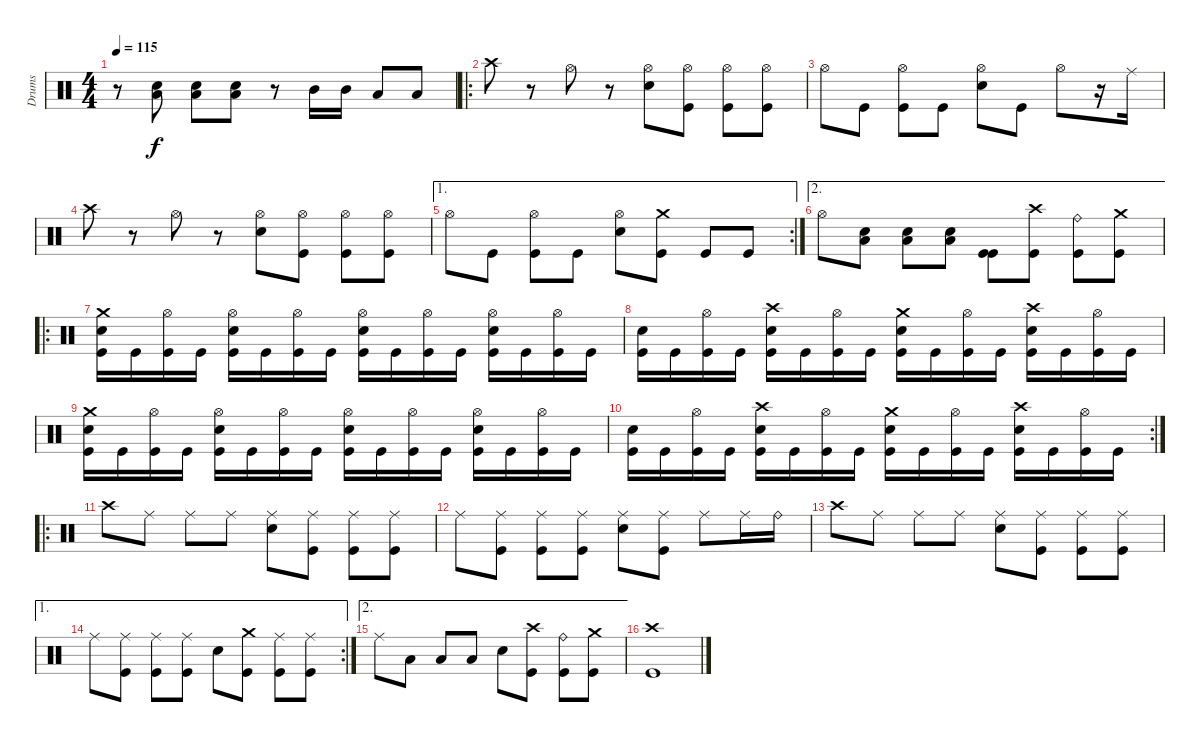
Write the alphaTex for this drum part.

\track ("Drums" "Drums") {instrument percussion}
\staff
\articulation defaults
\ts (4 4)
\tempo 115
\clef neutral
\ks c
r.8{dy f} ("Low Tom (hit)" "Snare (hit) 2").8 ("Low Tom (hit)" "Snare (hit) 2").8 ("Low Tom (hit)" "Snare (hit) 2").8 r.8 "Mid Tom (hit)".16 "Mid Tom (hit)".16 "Low Tom (hit)".8 "Low Tom (hit)".8 |
\ro "Crash high (hit)".8
r.8 "Hi-Hat (open)".8 r.8 ("Hi-Hat (open)" "Snare (hit) 2").8 ("Hi-Hat (open)" "Kick (hit)").8 ("Hi-Hat (open)" "Kick (hit)").8 ("Hi-Hat (open)" "Kick (hit)").8 |
"Hi-Hat (open)".8 "Kick (hit)".8 ("Hi-Hat (open)" "Kick (hit)").8 "Kick (hit)".8 ("Hi-Hat (open)" "Snare (hit) 2").8 "Kick (hit)".8 "Hi-Hat (open)".8 r.16 "Ride (middle)".16 |
"Crash high (hit)".8 r.8 "Hi-Hat (open)".8 r.8 ("Hi-Hat (open)" "Snare (hit) 2").8 ("Hi-Hat (open)" "Kick (hit)").8 ("Hi-Hat (open)" "Kick (hit)").8 ("Hi-Hat (open)" "Kick (hit)").8 |
\ae 1
\rc 2 "Hi-Hat (open)".8 "Kick (hit)".8
("Hi-Hat (open)" "Kick (hit)").8 "Kick (hit)".8 ("Hi-Hat (open)" "Snare (hit) 2").8 ("Crash medium (hit)" "Kick (hit)").8 "Kick (hit)".8 "Kick (hit)".8 |
\ae 2 "Hi-Hat (open)".8
("Low Tom (hit)" "Snare (hit) 2").8 ("Low Tom (hit)" "Snare (hit) 2").8 ("Low Tom (hit)" "Snare (hit) 2").8 ("Kick (hit)" "Kick (hit)").8 ("Crash high (hit)" "Kick (hit)").8 ("Ride (bell)" "Kick (hit)").8 ("Crash medium (hit)" "Kick (hit)").8 |
\ro
("Crash medium (hit)" "Snare (hit) 2" "Kick (hit)").16 "Kick (hit)".16 ("Hi-Hat (open)" "Kick (hit)").16 "Kick (hit)".16 ("Hi-Hat (open)" "Snare (hit) 2" "Kick (hit)").16 "Kick (hit)".16 ("Hi-Hat (open)" "Kick (hit)").16 "Kick (hit)".16 ("Hi-Hat (open)" "Snare (hit) 2" "Kick (hit)").16 "Kick (hit)".16 ("Hi-Hat (open)" "Kick (hit)").16 "Kick (hit)".16 ("Hi-Hat (open)" "Snare (hit) 2" "Kick (hit)").16 "Kick (hit)".16 ("Hi-Hat (open)" "Kick (hit)").16 "Kick (hit)".16 |
("Snare (hit) 2" "Kick (hit)").16 "Kick (hit)".16 ("Hi-Hat (open)" "Kick (hit)").16 "Kick (hit)".16 ("Crash high (hit)" "Snare (hit) 2" "Kick (hit)").16 "Kick (hit)".16 ("Hi-Hat (open)" "Kick (hit)").16 "Kick (hit)".16 ("Crash medium (hit)" "Snare (hit) 2" "Kick (hit)").16 "Kick (hit)".16 ("Hi-Hat (open)" "Kick (hit)").16 "Kick (hit)".16 ("Crash high (hit)" "Snare (hit) 2" "Kick (hit)").16 "Kick (hit)".16 ("Hi-Hat (open)" "Kick (hit)").16 "Kick (hit)".16 |
("Crash medium (hit)" "Snare (hit) 2" "Kick (hit)").16 "Kick (hit)".16 ("Hi-Hat (open)" "Kick (hit)").16 "Kick (hit)".16 ("Hi-Hat (open)" "Snare (hit) 2" "Kick (hit)").16 "Kick (hit)".16 ("Hi-Hat (open)" "Kick (hit)").16 "Kick (hit)".16 ("Hi-Hat (open)" "Snare (hit) 2" "Kick (hit)").16 "Kick (hit)".16 ("Hi-Hat (open)" "Kick (hit)").16 "Kick (hit)".16 ("Hi-Hat (open)" "Snare (hit) 2" "Kick (hit)").16 "Kick (hit)".16 ("Hi-Hat (open)" "Kick (hit)").16 "Kick (hit)".16 |
\rc 2
("Snare (hit) 2" "Kick (hit)").16 "Kick (hit)".16 ("Hi-Hat (open)" "Kick (hit)").16 "Kick (hit)".16 ("Crash high (hit)" "Snare (hit) 2" "Kick (hit)").16 "Kick (hit)".16 ("Hi-Hat (open)" "Kick (hit)").16 "Kick (hit)".16 ("Crash medium (hit)" "Snare (hit) 2" "Kick (hit)").16 "Kick (hit)".16 ("Hi-Hat (open)" "Kick (hit)").16 "Kick (hit)".16 ("Crash high (hit)" "Snare (hit) 2" "Kick (hit)").16 "Kick (hit)".16 ("Hi-Hat (open)" "Kick (hit)").16 "Kick (hit)".16 |
\ro "Crash high (hit)".8 "Ride (middle)".8 "Ride (middle)".8 "Ride (middle)".8
("Ride (middle)" "Snare (hit) 2").8 ("Ride (middle)" "Kick (hit)").8 ("Ride (middle)" "Kick (hit)").8 ("Ride (middle)" "Kick (hit)").8 |
"Ride (middle)".8 ("Ride (middle)" "Kick (hit)").8 ("Ride (middle)" "Kick (hit)").8 ("Ride (middle)" "Kick (hit)").8 ("Ride (middle)" "Snare (hit) 2").8 ("Ride (middle)" "Kick (hit)").8 "Ride (middle)".8 "Ride (middle)".16 "Ride (bell)".16 |
"Crash high (hit)".8 "Ride (middle)".8 "Ride (middle)".8 "Ride (middle)".8 ("Ride (middle)" "Snare (hit) 2").8 ("Ride (middle)" "Kick (hit)").8 ("Ride (middle)" "Kick (hit)").8 ("Ride (middle)" "Kick (hit)").8 |
\ae 1
\rc 2 "Ride (middle)".8
("Ride (middle)" "Kick (hit)").8 ("Ride (middle)" "Kick (hit)").8 ("Ride (middle)" "Kick (hit)").8 "Snare (hit) 2".8 ("Crash medium (hit)" "Kick (hit)").8 ("Ride (middle)" "Kick (hit)").8 ("Ride (middle)" "Kick (hit)").8 |
\ae 2 "Ride (middle)".8 "Low Tom (hit)".8 "Low Tom (hit)".8 "Low Tom (hit)".8 "Snare (hit) 2".8
("Crash high (hit)" "Kick (hit)").8 ("Ride (bell)" "Kick (hit)").8 ("Crash medium (hit)" "Kick (hit)").8 |
("Crash high (hit)" "Kick (hit)").1
